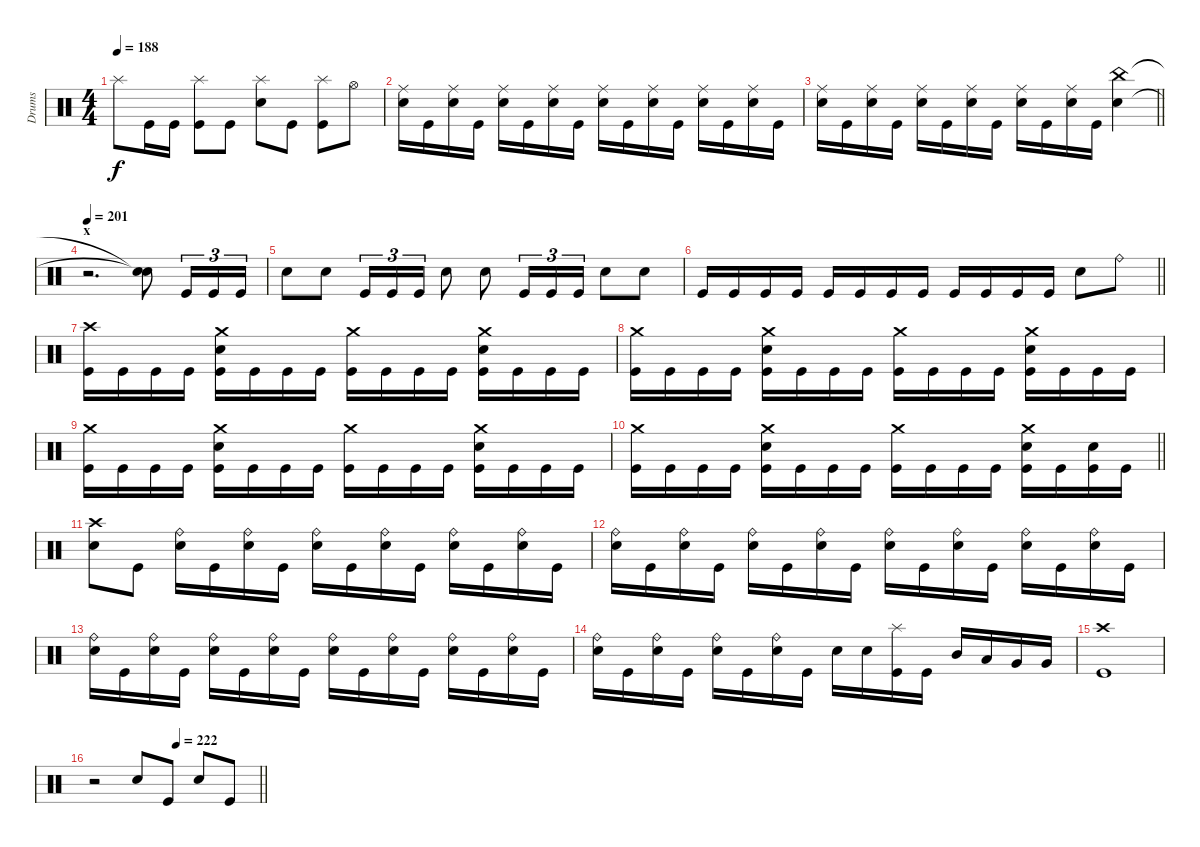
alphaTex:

\track ("Drums" "Drums") {instrument percussion}
\staff
\articulation defaults
\ts (4 4)
\tempo 188
\clef neutral
\ks c "Splash (hit)".8{dy f} "Kick (hit)".16 "Kick (hit)".16
("Splash (hit)" "Kick (hit)").8 "Kick (hit)".8 ("Splash (hit)" "Electric Snare (hit)").8 "Kick (hit)".8 ("Splash (hit)" "Kick (hit)").8 "Hi-Hat (open)".8 |
("Ride (middle)" "Electric Snare (hit)").16 "Kick (hit)".16 ("Ride (middle)" "Electric Snare (hit)").16 "Kick (hit)".16 ("Ride (middle)" "Electric Snare (hit)").16 "Kick (hit)".16 ("Ride (middle)" "Electric Snare (hit)").16 "Kick (hit)".16 ("Ride (middle)" "Electric Snare (hit)").16 "Kick (hit)".16 ("Ride (middle)" "Electric Snare (hit)").16 "Kick (hit)".16 ("Ride (middle)" "Electric Snare (hit)").16 "Kick (hit)".16 ("Ride (middle)" "Electric Snare (hit)").16 "Kick (hit)".16 |
\barLineRight lightlight
("Ride (middle)" "Electric Snare (hit)").16 "Kick (hit)".16 ("Ride (middle)" "Electric Snare (hit)").16 "Kick (hit)".16 ("Ride (middle)" "Electric Snare (hit)").16 "Kick (hit)".16 ("Ride (middle)" "Electric Snare (hit)").16 "Kick (hit)".16 ("Ride (middle)" "Electric Snare (hit)").16 "Kick (hit)".16 ("Ride (middle)" "Electric Snare (hit)").16 "Kick (hit)".16 ("China (hit)" "Electric Snare (hit)").4 |
\section ("" "x")
\tempo 201
r.2{d} ("Snare (hit)"{t} "Snare (hit)"{t}).8 "Kick (hit)".16{tu (3 2)} "Kick (hit)".16{tu (3 2)} "Kick (hit)".16{tu (3 2)} |
"Electric Snare (hit)".8 "Electric Snare (hit)".8 "Kick (hit)".16{tu (3 2)} "Kick (hit)".16{tu (3 2)} "Kick (hit)".16{tu (3 2)} "Electric Snare (hit)".8 "Electric Snare (hit)".8 "Kick (hit)".16{tu (3 2)} "Kick (hit)".16{tu (3 2)} "Kick (hit)".16{tu (3 2)} "Electric Snare (hit)".8 "Electric Snare (hit)".8 |
\barLineRight lightlight "Kick (hit)".16 "Kick (hit)".16 "Kick (hit)".16 "Kick (hit)".16 "Kick (hit)".16 "Kick (hit)".16 "Kick (hit)".16 "Kick (hit)".16 "Kick (hit)".16 "Kick (hit)".16 "Kick (hit)".16 "Kick (hit)".16 "Electric Snare (hit)".8 "Ride (bell)".8
|
\section ("" "")
("Crash high (hit)" "Kick (hit)").16 "Kick (hit)".16 "Kick (hit)".16 "Kick (hit)".16 ("Crash medium (hit)" "Electric Snare (hit)" "Kick (hit)").16 "Kick (hit)".16 "Kick (hit)".16 "Kick (hit)".16 ("Crash medium (hit)" "Kick (hit)").16 "Kick (hit)".16 "Kick (hit)".16 "Kick (hit)".16 ("Crash medium (hit)" "Electric Snare (hit)" "Kick (hit)").16 "Kick (hit)".16 "Kick (hit)".16 "Kick (hit)".16 |
("Crash medium (hit)" "Kick (hit)").16 "Kick (hit)".16 "Kick (hit)".16 "Kick (hit)".16 ("Crash medium (hit)" "Electric Snare (hit)" "Kick (hit)").16 "Kick (hit)".16 "Kick (hit)".16 "Kick (hit)".16 ("Crash medium (hit)" "Kick (hit)").16 "Kick (hit)".16 "Kick (hit)".16 "Kick (hit)".16 ("Crash medium (hit)" "Electric Snare (hit)" "Kick (hit)").16 "Kick (hit)".16 "Kick (hit)".16 "Kick (hit)".16 |
("Crash medium (hit)" "Kick (hit)").16 "Kick (hit)".16 "Kick (hit)".16 "Kick (hit)".16 ("Crash medium (hit)" "Electric Snare (hit)" "Kick (hit)").16 "Kick (hit)".16 "Kick (hit)".16 "Kick (hit)".16 ("Crash medium (hit)" "Kick (hit)").16 "Kick (hit)".16 "Kick (hit)".16 "Kick (hit)".16 ("Crash medium (hit)" "Electric Snare (hit)" "Kick (hit)").16 "Kick (hit)".16 "Kick (hit)".16 "Kick (hit)".16 |
\barLineRight lightlight
("Crash medium (hit)" "Kick (hit)").16 "Kick (hit)".16 "Kick (hit)".16 "Kick (hit)".16 ("Crash medium (hit)" "Electric Snare (hit)" "Kick (hit)").16 "Kick (hit)".16 "Kick (hit)".16 "Kick (hit)".16 ("Crash medium (hit)" "Kick (hit)").16 "Kick (hit)".16 "Kick (hit)".16 "Kick (hit)".16 ("Crash medium (hit)" "Electric Snare (hit)" "Kick (hit)").16 "Kick (hit)".16 ("Electric Snare (hit)" "Kick (hit)").16 "Kick (hit)".16 |
("Crash high (hit)" "Electric Snare (hit)").8 "Kick (hit)".8 ("Ride (bell)" "Electric Snare (hit)").16 "Kick (hit)".16 ("Ride (bell)" "Electric Snare (hit)").16 "Kick (hit)".16 ("Ride (bell)" "Electric Snare (hit)").16 "Kick (hit)".16 ("Ride (bell)" "Electric Snare (hit)").16 "Kick (hit)".16 ("Ride (bell)" "Electric Snare (hit)").16 "Kick (hit)".16 ("Ride (bell)" "Electric Snare (hit)").16 "Kick (hit)".16 |
("Ride (bell)" "Electric Snare (hit)").16 "Kick (hit)".16 ("Ride (bell)" "Electric Snare (hit)").16 "Kick (hit)".16 ("Ride (bell)" "Electric Snare (hit)").16 "Kick (hit)".16 ("Ride (bell)" "Electric Snare (hit)").16 "Kick (hit)".16 ("Ride (bell)" "Electric Snare (hit)").16 "Kick (hit)".16 ("Ride (bell)" "Electric Snare (hit)").16 "Kick (hit)".16 ("Ride (bell)" "Electric Snare (hit)").16 "Kick (hit)".16 ("Ride (bell)" "Electric Snare (hit)").16 "Kick (hit)".16 |
("Ride (bell)" "Electric Snare (hit)").16 "Kick (hit)".16 ("Ride (bell)" "Electric Snare (hit)").16 "Kick (hit)".16 ("Ride (bell)" "Electric Snare (hit)").16 "Kick (hit)".16 ("Ride (bell)" "Electric Snare (hit)").16 "Kick (hit)".16 ("Ride (bell)" "Electric Snare (hit)").16 "Kick (hit)".16 ("Ride (bell)" "Electric Snare (hit)").16 "Kick (hit)".16 ("Ride (bell)" "Electric Snare (hit)").16 "Kick (hit)".16 ("Ride (bell)" "Electric Snare (hit)").16 "Kick (hit)".16 |
("Ride (bell)" "Electric Snare (hit)").16 "Kick (hit)".16 ("Ride (bell)" "Electric Snare (hit)").16 "Kick (hit)".16 ("Ride (bell)" "Electric Snare (hit)").16 "Kick (hit)".16 ("Ride (bell)" "Electric Snare (hit)").16 "Kick (hit)".16 "Electric Snare (hit)".16 "Electric Snare (hit)".16 ("Splash (hit)" "Kick (hit)").16 "Kick (hit)".16 "Mid Tom (hit)".16 "Low Tom (hit)".16 "Very Low Tom (hit)".16 "Very Low Tom (hit)".16 |
("Crash high (hit)" "Kick (hit)").1 |
\tempo (222 0.5)
\barLineRight lightlight
r.2 "Electric Snare (hit)".8 "Kick (hit)".8 "Electric Snare (hit)".8 "Kick (hit)".8
